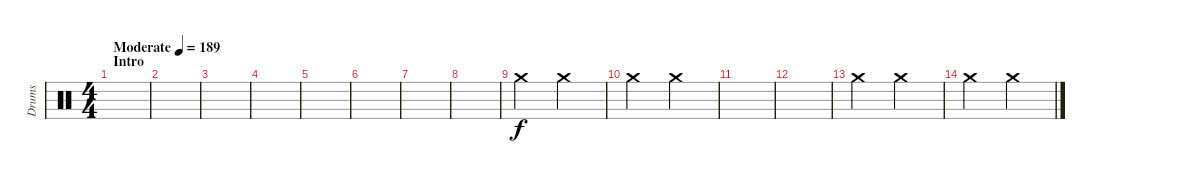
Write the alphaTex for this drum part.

\track ("Drums" "Drums") {instrument percussion}
\staff {score}
\articulation defaults
\ts (4 4)
\section ("" "Intro")
\tempo (189 "Moderate")
\clef neutral
\ks c
|
|
|
|
|
|
|
|
"Crash medium (hit)".2 "Crash medium (hit)".2 |
"Crash medium (hit)".2 "Crash medium (hit)".2 |
|
|
"Crash medium (hit)".2 "Crash medium (hit)".2 |
"Crash medium (hit)".2 "Crash medium (hit)".2
